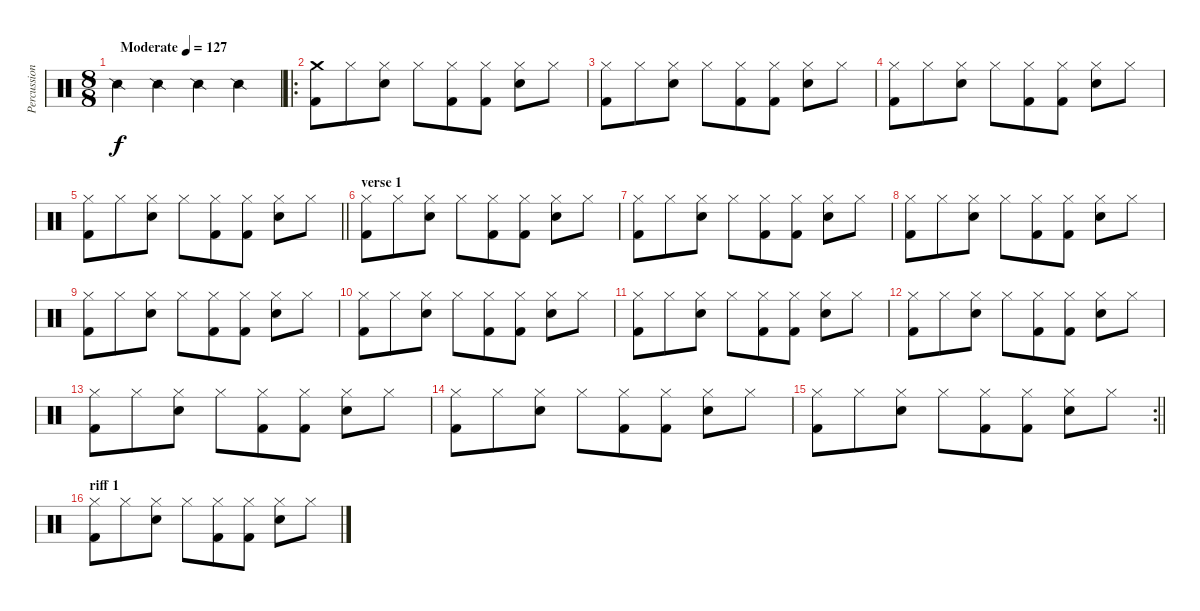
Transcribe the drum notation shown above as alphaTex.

\track ("Percussion" "Percussion") {instrument percussion}
\staff {score}
\articulation defaults
\ts (8 8)
\tempo (127 "Moderate")
\clef neutral
\ks c "Snare (side stick) 2".4{dy f} "Snare (side stick) 2".4 "Snare (side stick) 2".4 "Snare (side stick) 2".4
|
\ro
("Crash medium (hit)" "Kick (hit) 2").8 "Hi-Hat (closed)".8 ("Hi-Hat (closed)" "Snare (hit) 2").8 "Hi-Hat (closed)".8 ("Hi-Hat (closed)" "Kick (hit) 2").8 ("Hi-Hat (closed)" "Kick (hit) 2").8 ("Hi-Hat (closed)" "Snare (hit) 2").8 "Hi-Hat (closed)".8 |
("Hi-Hat (closed)" "Kick (hit) 2").8 "Hi-Hat (closed)".8 ("Hi-Hat (closed)" "Snare (hit) 2").8 "Hi-Hat (closed)".8 ("Hi-Hat (closed)" "Kick (hit) 2").8 ("Hi-Hat (closed)" "Kick (hit) 2").8 ("Hi-Hat (closed)" "Snare (hit) 2").8 "Hi-Hat (closed)".8 |
("Hi-Hat (closed)" "Kick (hit) 2").8 "Hi-Hat (closed)".8 ("Hi-Hat (closed)" "Snare (hit) 2").8 "Hi-Hat (closed)".8 ("Hi-Hat (closed)" "Kick (hit) 2").8 ("Hi-Hat (closed)" "Kick (hit) 2").8 ("Hi-Hat (closed)" "Snare (hit) 2").8 "Hi-Hat (closed)".8 |
\barLineRight lightlight
("Hi-Hat (closed)" "Kick (hit) 2").8 "Hi-Hat (closed)".8 ("Hi-Hat (closed)" "Snare (hit) 2").8 "Hi-Hat (closed)".8 ("Hi-Hat (closed)" "Kick (hit) 2").8 ("Hi-Hat (closed)" "Kick (hit) 2").8 ("Hi-Hat (closed)" "Snare (hit) 2").8 "Hi-Hat (closed)".8 |
\section ("" "verse 1")
("Hi-Hat (closed)" "Kick (hit) 2").8 "Hi-Hat (closed)".8 ("Hi-Hat (closed)" "Snare (hit) 2").8 "Hi-Hat (closed)".8 ("Hi-Hat (closed)" "Kick (hit) 2").8 ("Hi-Hat (closed)" "Kick (hit) 2").8 ("Hi-Hat (closed)" "Snare (hit) 2").8 "Hi-Hat (closed)".8 |
("Hi-Hat (closed)" "Kick (hit) 2").8 "Hi-Hat (closed)".8 ("Hi-Hat (closed)" "Snare (hit) 2").8 "Hi-Hat (closed)".8 ("Hi-Hat (closed)" "Kick (hit) 2").8 ("Hi-Hat (closed)" "Kick (hit) 2").8 ("Hi-Hat (closed)" "Snare (hit) 2").8 "Hi-Hat (closed)".8 |
("Hi-Hat (closed)" "Kick (hit) 2").8 "Hi-Hat (closed)".8 ("Hi-Hat (closed)" "Snare (hit) 2").8 "Hi-Hat (closed)".8 ("Hi-Hat (closed)" "Kick (hit) 2").8 ("Hi-Hat (closed)" "Kick (hit) 2").8 ("Hi-Hat (closed)" "Snare (hit) 2").8 "Hi-Hat (closed)".8 |
("Hi-Hat (closed)" "Kick (hit) 2").8 "Hi-Hat (closed)".8 ("Hi-Hat (closed)" "Snare (hit) 2").8 "Hi-Hat (closed)".8 ("Hi-Hat (closed)" "Kick (hit) 2").8 ("Hi-Hat (closed)" "Kick (hit) 2").8 ("Hi-Hat (closed)" "Snare (hit) 2").8 "Hi-Hat (closed)".8 |
("Hi-Hat (closed)" "Kick (hit) 2").8 "Hi-Hat (closed)".8 ("Hi-Hat (closed)" "Snare (hit) 2").8 "Hi-Hat (closed)".8 ("Hi-Hat (closed)" "Kick (hit) 2").8 ("Hi-Hat (closed)" "Kick (hit) 2").8 ("Hi-Hat (closed)" "Snare (hit) 2").8 "Hi-Hat (closed)".8 |
("Hi-Hat (closed)" "Kick (hit) 2").8 "Hi-Hat (closed)".8 ("Hi-Hat (closed)" "Snare (hit) 2").8 "Hi-Hat (closed)".8 ("Hi-Hat (closed)" "Kick (hit) 2").8 ("Hi-Hat (closed)" "Kick (hit) 2").8 ("Hi-Hat (closed)" "Snare (hit) 2").8 "Hi-Hat (closed)".8 |
("Hi-Hat (closed)" "Kick (hit) 2").8 "Hi-Hat (closed)".8 ("Hi-Hat (closed)" "Snare (hit) 2").8 "Hi-Hat (closed)".8 ("Hi-Hat (closed)" "Kick (hit) 2").8 ("Hi-Hat (closed)" "Kick (hit) 2").8 ("Hi-Hat (closed)" "Snare (hit) 2").8 "Hi-Hat (closed)".8 |
("Hi-Hat (closed)" "Kick (hit) 2").8 "Hi-Hat (closed)".8 ("Hi-Hat (closed)" "Snare (hit) 2").8 "Hi-Hat (closed)".8 ("Hi-Hat (closed)" "Kick (hit) 2").8 ("Hi-Hat (closed)" "Kick (hit) 2").8 ("Hi-Hat (closed)" "Snare (hit) 2").8 "Hi-Hat (closed)".8 |
("Hi-Hat (closed)" "Kick (hit) 2").8 "Hi-Hat (closed)".8 ("Hi-Hat (closed)" "Snare (hit) 2").8 "Hi-Hat (closed)".8 ("Hi-Hat (closed)" "Kick (hit) 2").8 ("Hi-Hat (closed)" "Kick (hit) 2").8 ("Hi-Hat (closed)" "Snare (hit) 2").8 "Hi-Hat (closed)".8 |
\rc 2
\barLineRight lightlight
("Hi-Hat (closed)" "Kick (hit) 2").8 "Hi-Hat (closed)".8 ("Hi-Hat (closed)" "Snare (hit) 2").8 "Hi-Hat (closed)".8 ("Hi-Hat (closed)" "Kick (hit) 2").8 ("Hi-Hat (closed)" "Kick (hit) 2").8 ("Hi-Hat (closed)" "Snare (hit) 2").8 "Hi-Hat (closed)".8 |
\section ("" "riff 1")
("Hi-Hat (closed)" "Kick (hit) 2").8 "Hi-Hat (closed)".8 ("Hi-Hat (closed)" "Snare (hit) 2").8 "Hi-Hat (closed)".8 ("Hi-Hat (closed)" "Kick (hit) 2").8 ("Hi-Hat (closed)" "Kick (hit) 2").8 ("Hi-Hat (closed)" "Snare (hit) 2").8 "Hi-Hat (closed)".8
